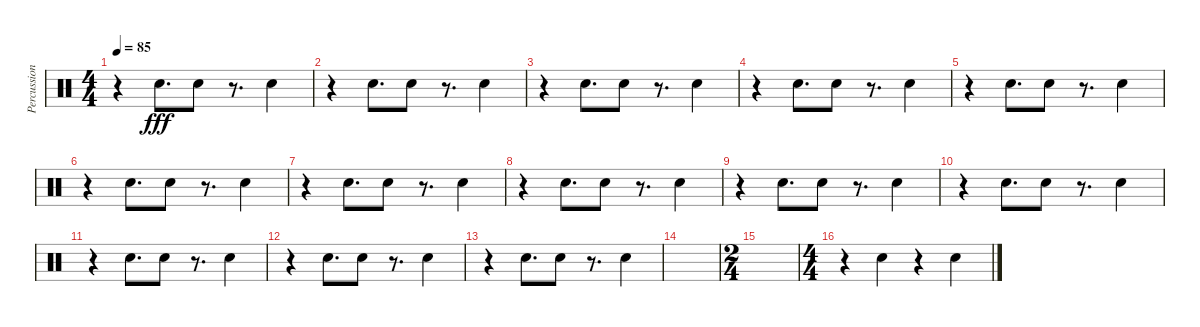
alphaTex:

\track ("Percussion" "Percussion") {instrument percussion}
\staff {score}
\articulation defaults
\ts (4 4)
\tempo 85
\clef neutral
\ks c
r.4{dy fff} "Snare (hit) 2".8{d} "Snare (hit) 2".8 r.8{d} "Snare (hit) 2".4 |
r.4 "Snare (hit) 2".8{d} "Snare (hit) 2".8 r.8{d} "Snare (hit) 2".4 |
r.4 "Snare (hit) 2".8{d} "Snare (hit) 2".8 r.8{d} "Snare (hit) 2".4 |
r.4 "Snare (hit) 2".8{d} "Snare (hit) 2".8 r.8{d} "Snare (hit) 2".4 |
r.4 "Snare (hit) 2".8{d} "Snare (hit) 2".8 r.8{d} "Snare (hit) 2".4 |
r.4 "Snare (hit) 2".8{d} "Snare (hit) 2".8 r.8{d} "Snare (hit) 2".4 |
r.4 "Snare (hit) 2".8{d} "Snare (hit) 2".8 r.8{d} "Snare (hit) 2".4 |
r.4 "Snare (hit) 2".8{d} "Snare (hit) 2".8 r.8{d} "Snare (hit) 2".4 |
r.4 "Snare (hit) 2".8{d} "Snare (hit) 2".8 r.8{d} "Snare (hit) 2".4 |
r.4 "Snare (hit) 2".8{d} "Snare (hit) 2".8 r.8{d} "Snare (hit) 2".4 |
r.4 "Snare (hit) 2".8{d} "Snare (hit) 2".8 r.8{d} "Snare (hit) 2".4 |
r.4 "Snare (hit) 2".8{d} "Snare (hit) 2".8 r.8{d} "Snare (hit) 2".4 |
r.4 "Snare (hit) 2".8{d} "Snare (hit) 2".8 r.8{d} "Snare (hit) 2".4 |
|
\ts (2 4)
|
\ts (4 4)
r.4 "Snare (hit) 2".4 r.4 "Snare (hit) 2".4
